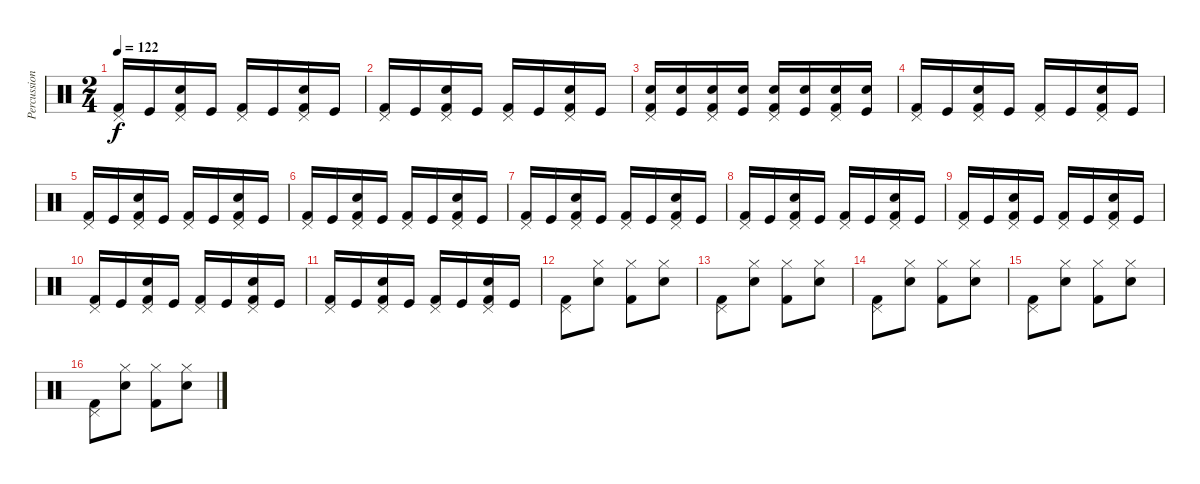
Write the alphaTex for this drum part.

\track ("Percussions" "Percussion") {instrument percussion}
\staff {score}
\articulation defaults
\ts (2 4)
\tempo 122
\clef neutral
\ks c
("Pedal Hi-Hat (hit)" "Kick (hit) 2").16{dy f} "Kick (hit)".16 ("Pedal Hi-Hat (hit)" "Snare (hit) 2" "Kick (hit) 2").16 "Kick (hit)".16 ("Pedal Hi-Hat (hit)" "Kick (hit) 2").16 "Kick (hit)".16 ("Pedal Hi-Hat (hit)" "Snare (hit) 2" "Kick (hit) 2").16 "Kick (hit)".16 |
("Pedal Hi-Hat (hit)" "Kick (hit) 2").16 "Kick (hit)".16 ("Pedal Hi-Hat (hit)" "Snare (hit) 2" "Kick (hit) 2").16 "Kick (hit)".16 ("Pedal Hi-Hat (hit)" "Kick (hit) 2").16 "Kick (hit)".16 ("Pedal Hi-Hat (hit)" "Snare (hit) 2" "Kick (hit) 2").16 "Kick (hit)".16 |
("Pedal Hi-Hat (hit)" "Snare (hit) 2" "Kick (hit) 2").16 ("Snare (hit) 2" "Kick (hit)").16 ("Pedal Hi-Hat (hit)" "Snare (hit) 2" "Kick (hit) 2").16 ("Snare (hit) 2" "Kick (hit)").16 ("Pedal Hi-Hat (hit)" "Snare (hit) 2" "Kick (hit) 2").16 ("Snare (hit) 2" "Kick (hit)").16 ("Pedal Hi-Hat (hit)" "Snare (hit) 2" "Kick (hit) 2").16 ("Snare (hit) 2" "Kick (hit)").16 |
("Pedal Hi-Hat (hit)" "Kick (hit) 2").16 "Kick (hit)".16 ("Pedal Hi-Hat (hit)" "Snare (hit) 2" "Kick (hit) 2").16 "Kick (hit)".16 ("Pedal Hi-Hat (hit)" "Kick (hit) 2").16 "Kick (hit)".16 ("Pedal Hi-Hat (hit)" "Snare (hit) 2" "Kick (hit) 2").16 "Kick (hit)".16 |
("Pedal Hi-Hat (hit)" "Kick (hit) 2").16 "Kick (hit)".16 ("Pedal Hi-Hat (hit)" "Snare (hit) 2" "Kick (hit) 2").16 "Kick (hit)".16 ("Pedal Hi-Hat (hit)" "Kick (hit) 2").16 "Kick (hit)".16 ("Pedal Hi-Hat (hit)" "Snare (hit) 2" "Kick (hit) 2").16 "Kick (hit)".16 |
("Pedal Hi-Hat (hit)" "Kick (hit) 2").16 "Kick (hit)".16 ("Pedal Hi-Hat (hit)" "Snare (hit) 2" "Kick (hit) 2").16 "Kick (hit)".16 ("Pedal Hi-Hat (hit)" "Kick (hit) 2").16 "Kick (hit)".16 ("Pedal Hi-Hat (hit)" "Snare (hit) 2" "Kick (hit) 2").16 "Kick (hit)".16 |
("Pedal Hi-Hat (hit)" "Kick (hit) 2").16 "Kick (hit)".16 ("Pedal Hi-Hat (hit)" "Snare (hit) 2" "Kick (hit) 2").16 "Kick (hit)".16 ("Pedal Hi-Hat (hit)" "Kick (hit) 2").16 "Kick (hit)".16 ("Pedal Hi-Hat (hit)" "Snare (hit) 2" "Kick (hit) 2").16 "Kick (hit)".16 |
("Pedal Hi-Hat (hit)" "Kick (hit) 2").16 "Kick (hit)".16 ("Pedal Hi-Hat (hit)" "Snare (hit) 2" "Kick (hit) 2").16 "Kick (hit)".16 ("Pedal Hi-Hat (hit)" "Kick (hit) 2").16 "Kick (hit)".16 ("Pedal Hi-Hat (hit)" "Snare (hit) 2" "Kick (hit) 2").16 "Kick (hit)".16 |
("Pedal Hi-Hat (hit)" "Kick (hit) 2").16 "Kick (hit)".16 ("Pedal Hi-Hat (hit)" "Snare (hit) 2" "Kick (hit) 2").16 "Kick (hit)".16 ("Pedal Hi-Hat (hit)" "Kick (hit) 2").16 "Kick (hit)".16 ("Pedal Hi-Hat (hit)" "Snare (hit) 2" "Kick (hit) 2").16 "Kick (hit)".16 |
("Pedal Hi-Hat (hit)" "Kick (hit) 2").16 "Kick (hit)".16 ("Pedal Hi-Hat (hit)" "Snare (hit) 2" "Kick (hit) 2").16 "Kick (hit)".16 ("Pedal Hi-Hat (hit)" "Kick (hit) 2").16 "Kick (hit)".16 ("Pedal Hi-Hat (hit)" "Snare (hit) 2" "Kick (hit) 2").16 "Kick (hit)".16 |
("Pedal Hi-Hat (hit)" "Kick (hit) 2").16 "Kick (hit)".16 ("Pedal Hi-Hat (hit)" "Snare (hit) 2" "Kick (hit) 2").16 "Kick (hit)".16 ("Pedal Hi-Hat (hit)" "Kick (hit) 2").16 "Kick (hit)".16 ("Pedal Hi-Hat (hit)" "Snare (hit) 2" "Kick (hit) 2").16 "Kick (hit)".16 |
("Pedal Hi-Hat (hit)" "Kick (hit) 2").8 ("Hi-Hat (closed)" "Snare (hit) 2").8 ("Hi-Hat (closed)" "Kick (hit) 2").8 ("Hi-Hat (closed)" "Snare (hit) 2").8 |
("Pedal Hi-Hat (hit)" "Kick (hit) 2").8 ("Hi-Hat (closed)" "Snare (hit) 2").8 ("Hi-Hat (closed)" "Kick (hit) 2").8 ("Hi-Hat (closed)" "Snare (hit) 2").8 |
("Pedal Hi-Hat (hit)" "Kick (hit) 2").8 ("Hi-Hat (closed)" "Snare (hit) 2").8 ("Hi-Hat (closed)" "Kick (hit) 2").8 ("Hi-Hat (closed)" "Snare (hit) 2").8 |
("Pedal Hi-Hat (hit)" "Kick (hit) 2").8 ("Hi-Hat (closed)" "Snare (hit) 2").8 ("Hi-Hat (closed)" "Kick (hit) 2").8 ("Hi-Hat (closed)" "Snare (hit) 2").8 |
("Pedal Hi-Hat (hit)" "Kick (hit) 2").8 ("Hi-Hat (closed)" "Snare (hit) 2").8 ("Hi-Hat (closed)" "Kick (hit) 2").8 ("Hi-Hat (closed)" "Snare (hit) 2").8
